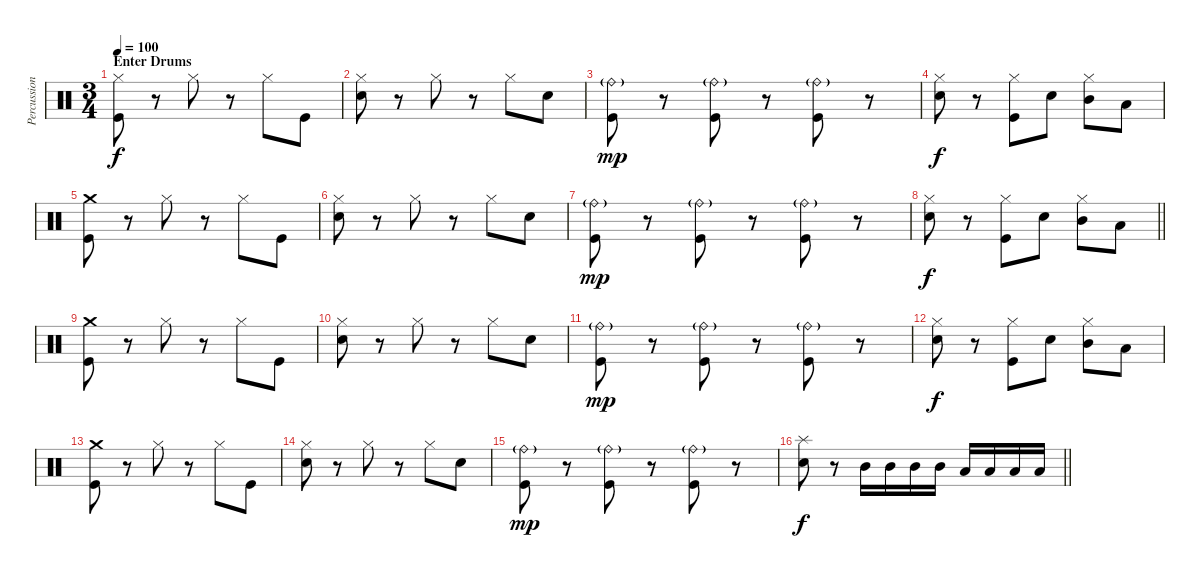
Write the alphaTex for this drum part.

\track ("Percussion" "Percussion") {instrument percussion}
\staff {score}
\articulation defaults
\ts (3 4)
\section ("" "Enter Drums")
\tempo 100
\clef neutral
\ks aminor
("Hi-Hat (closed)" "Kick (hit)").8{dy f} r.8 "Hi-Hat (closed)".8 r.8 "Hi-Hat (closed)".8 "Kick (hit)".8 |
("Hi-Hat (closed)" "Snare (hit) 2").8 r.8 "Hi-Hat (closed)".8 r.8 "Hi-Hat (closed)".8 "Snare (hit) 2".8 |
("Ride (bell)"{g} "Kick (hit)").8{dy mp} r.8 ("Ride (bell)"{g} "Kick (hit)").8 r.8 ("Ride (bell)"{g} "Kick (hit)").8 r.8 |
("Hi-Hat (closed)" "Snare (hit) 2").8{dy f} r.8 ("Hi-Hat (closed)" "Kick (hit)").8 "Snare (hit) 2".8 ("Hi-Hat (closed)" "Mid Tom (hit)").8 "Low Tom (hit)".8 |
("Crash medium (hit)" "Kick (hit)").8 r.8 "Hi-Hat (closed)".8 r.8 "Hi-Hat (closed)".8 "Kick (hit)".8 |
("Hi-Hat (closed)" "Snare (hit) 2").8 r.8 "Hi-Hat (closed)".8 r.8 "Hi-Hat (closed)".8 "Snare (hit) 2".8 |
("Ride (bell)"{g} "Kick (hit)").8{dy mp} r.8 ("Ride (bell)"{g} "Kick (hit)").8 r.8 ("Ride (bell)"{g} "Kick (hit)").8 r.8 |
\barLineRight lightlight
("Hi-Hat (closed)" "Snare (hit) 2").8{dy f} r.8 ("Hi-Hat (closed)" "Kick (hit)").8 "Snare (hit) 2".8 ("Hi-Hat (closed)" "Mid Tom (hit)").8 "Low Tom (hit)".8 |
\section ("" "")
("Crash medium (hit)" "Kick (hit)").8 r.8 "Hi-Hat (closed)".8 r.8 "Hi-Hat (closed)".8 "Kick (hit)".8 |
("Hi-Hat (closed)" "Snare (hit) 2").8 r.8 "Hi-Hat (closed)".8 r.8 "Hi-Hat (closed)".8 "Snare (hit) 2".8 |
("Ride (bell)"{g} "Kick (hit)").8{dy mp} r.8 ("Ride (bell)"{g} "Kick (hit)").8 r.8 ("Ride (bell)"{g} "Kick (hit)").8 r.8 |
("Hi-Hat (closed)" "Snare (hit) 2").8{dy f} r.8 ("Hi-Hat (closed)" "Kick (hit)").8 "Snare (hit) 2".8 ("Hi-Hat (closed)" "Mid Tom (hit)").8 "Low Tom (hit)".8 |
("Crash medium (hit)" "Kick (hit)").8 r.8 "Hi-Hat (closed)".8 r.8 "Hi-Hat (closed)".8 "Kick (hit)".8 |
("Hi-Hat (closed)" "Snare (hit) 2").8 r.8 "Hi-Hat (closed)".8 r.8 "Hi-Hat (closed)".8 "Snare (hit) 2".8 |
("Ride (bell)"{g} "Kick (hit)").8{dy mp} r.8 ("Ride (bell)"{g} "Kick (hit)").8 r.8 ("Ride (bell)"{g} "Kick (hit)").8 r.8 |
\barLineRight lightlight
("Splash (hit)" "Snare (hit) 2").8{dy f} r.8 "Mid Tom (hit)".16 "Mid Tom (hit)".16 "Mid Tom (hit)".16 "Mid Tom (hit)".16 "Low Tom (hit)".16 "Low Tom (hit)".16 "Low Tom (hit)".16 "Low Tom (hit)".16
